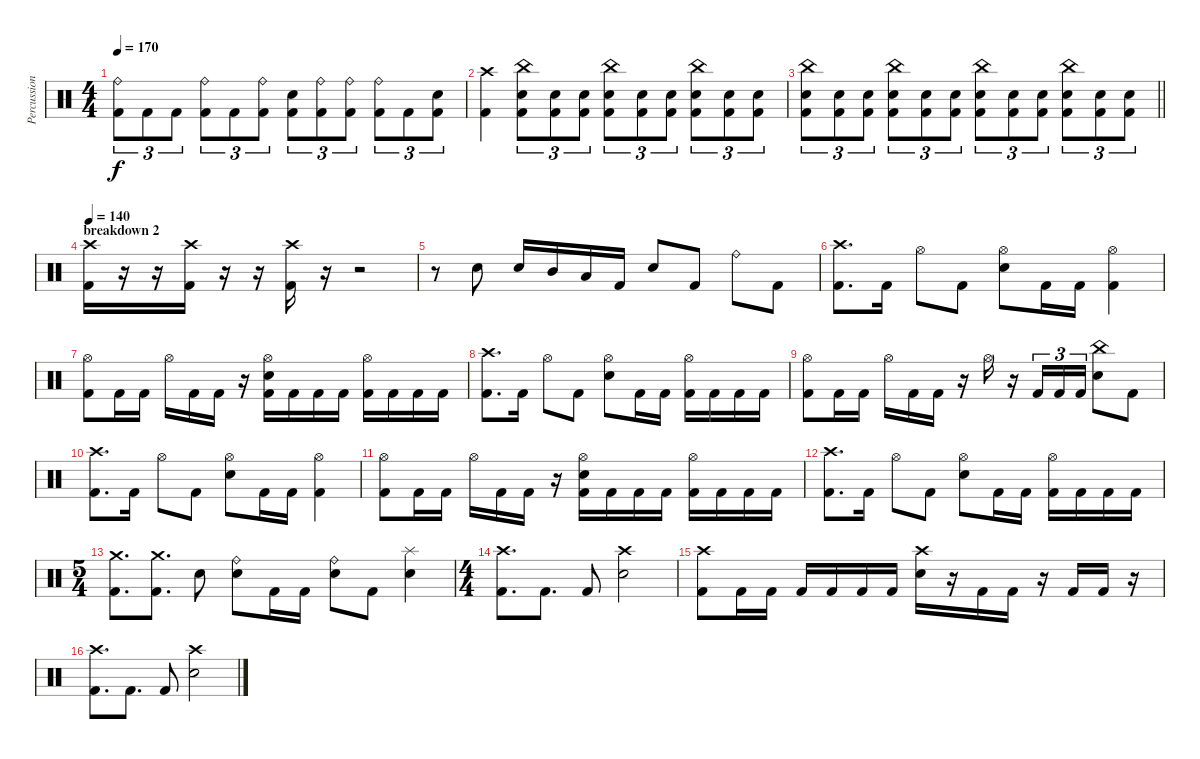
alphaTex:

\track ("Percussion" "Percussion") {instrument percussion}
\staff {score}
\articulation defaults
\ts (4 4)
\tempo 170
\clef neutral
\ks c
("Ride (bell)" "Kick (hit) 2").8{tu (3 2) dy f} "Kick (hit) 2".8{tu (3 2)} "Kick (hit) 2".8{tu (3 2)} ("Ride (bell)" "Kick (hit) 2").8{tu (3 2)} "Kick (hit) 2".8{tu (3 2)} ("Ride (bell)" "Kick (hit) 2").8{tu (3 2)} ("Electric Snare (hit)" "Kick (hit) 2").8{tu (3 2)} ("Ride (bell)" "Kick (hit) 2").8{tu (3 2)} ("Ride (bell)" "Kick (hit) 2").8{tu (3 2)} ("Ride (bell)" "Kick (hit) 2").8{tu (3 2)} "Kick (hit) 2".8{tu (3 2)} ("Electric Snare (hit)" "Kick (hit) 2").8{tu (3 2)} |
("Crash high (hit)" "Kick (hit) 2").4 ("China (hit)" "Electric Snare (hit)" "Kick (hit) 2").8{tu (3 2)} ("Electric Snare (hit)" "Kick (hit) 2").8{tu (3 2)} ("Electric Snare (hit)" "Kick (hit) 2").8{tu (3 2)} ("China (hit)" "Electric Snare (hit)" "Kick (hit) 2").8{tu (3 2)} ("Electric Snare (hit)" "Kick (hit) 2").8{tu (3 2)} ("Electric Snare (hit)" "Kick (hit) 2").8{tu (3 2)} ("China (hit)" "Electric Snare (hit)" "Kick (hit) 2").8{tu (3 2)} ("Electric Snare (hit)" "Kick (hit) 2").8{tu (3 2)} ("Electric Snare (hit)" "Kick (hit) 2").8{tu (3 2)} |
\barLineRight lightlight
("China (hit)" "Electric Snare (hit)" "Kick (hit) 2").8{tu (3 2)} ("Electric Snare (hit)" "Kick (hit) 2").8{tu (3 2)} ("Electric Snare (hit)" "Kick (hit) 2").8{tu (3 2)} ("China (hit)" "Electric Snare (hit)" "Kick (hit) 2").8{tu (3 2)} ("Electric Snare (hit)" "Kick (hit) 2").8{tu (3 2)} ("Electric Snare (hit)" "Kick (hit) 2").8{tu (3 2)} ("China (hit)" "Electric Snare (hit)" "Kick (hit) 2").8{tu (3 2)} ("Electric Snare (hit)" "Kick (hit) 2").8{tu (3 2)} ("Electric Snare (hit)" "Kick (hit) 2").8{tu (3 2)} ("China (hit)" "Electric Snare (hit)" "Kick (hit) 2").8{tu (3 2)} ("Electric Snare (hit)" "Kick (hit) 2").8{tu (3 2)} ("Electric Snare (hit)" "Kick (hit) 2").8{tu (3 2)} |
\section ("" "breakdown 2")
\tempo 150
\tempo 140
("Crash high (hit)" "Kick (hit) 2").16 r.16 r.16 ("Crash high (hit)" "Kick (hit) 2").16 r.16 r.16 ("Crash high (hit)" "Kick (hit) 2").16 r.16 r.2 |
r.8 "Electric Snare (hit)".8 "Electric Snare (hit)".16 "Mid Tom (hit)".16 "Low Tom (hit)".16 "Kick (hit) 2".16 "Electric Snare (hit)".8 "Kick (hit) 2".8 "Ride (bell)".8 "Kick (hit) 2".8 |
("Crash high (hit)" "Kick (hit) 2").8{d} "Kick (hit) 2".16 "Hi-Hat (open)".8 "Kick (hit) 2".8 ("Hi-Hat (open)" "Electric Snare (hit)").8 "Kick (hit) 2".16 "Kick (hit) 2".16 ("Hi-Hat (open)" "Kick (hit) 2").4 |
("Hi-Hat (open)" "Kick (hit) 2").8 "Kick (hit) 2".16 "Kick (hit) 2".16 "Hi-Hat (open)".16 "Kick (hit) 2".16 "Kick (hit) 2".16 r.16 ("Hi-Hat (open)" "Electric Snare (hit)" "Kick (hit) 2").16 "Kick (hit) 2".16 "Kick (hit) 2".16 "Kick (hit) 2".16 ("Hi-Hat (open)" "Kick (hit) 2").16 "Kick (hit) 2".16 "Kick (hit) 2".16 "Kick (hit) 2".16 |
("Crash high (hit)" "Kick (hit) 2").8{d} "Kick (hit) 2".16 "Hi-Hat (open)".8 "Kick (hit) 2".8 ("Hi-Hat (open)" "Electric Snare (hit)").8 "Kick (hit) 2".16 "Kick (hit) 2".16 ("Hi-Hat (open)" "Kick (hit) 2").16 "Kick (hit) 2".16 "Kick (hit) 2".16 "Kick (hit) 2".16 |
("Hi-Hat (open)" "Kick (hit) 2").8 "Kick (hit) 2".16 "Kick (hit) 2".16 "Hi-Hat (open)".16 "Kick (hit) 2".16 "Kick (hit) 2".16 r.16 "Hi-Hat (open)".16 r.16 "Kick (hit) 2".16{tu (3 2)} "Kick (hit) 2".16{tu (3 2)} "Kick (hit) 2".16{tu (3 2)} ("China (hit)" "Electric Snare (hit)").8 "Kick (hit) 2".8 |
("Crash high (hit)" "Kick (hit) 2").8{d} "Kick (hit) 2".16 "Hi-Hat (open)".8 "Kick (hit) 2".8 ("Hi-Hat (open)" "Electric Snare (hit)").8 "Kick (hit) 2".16 "Kick (hit) 2".16 ("Hi-Hat (open)" "Kick (hit) 2").4 |
("Hi-Hat (open)" "Kick (hit) 2").8 "Kick (hit) 2".16 "Kick (hit) 2".16 "Hi-Hat (open)".16 "Kick (hit) 2".16 "Kick (hit) 2".16 r.16 ("Hi-Hat (open)" "Electric Snare (hit)" "Kick (hit) 2").16 "Kick (hit) 2".16 "Kick (hit) 2".16 "Kick (hit) 2".16 ("Hi-Hat (open)" "Kick (hit) 2").16 "Kick (hit) 2".16 "Kick (hit) 2".16 "Kick (hit) 2".16 |
("Crash high (hit)" "Kick (hit) 2").8{d} "Kick (hit) 2".16 "Hi-Hat (open)".8 "Kick (hit) 2".8 ("Hi-Hat (open)" "Electric Snare (hit)").8 "Kick (hit) 2".16 "Kick (hit) 2".16 ("Hi-Hat (open)" "Kick (hit) 2").16 "Kick (hit) 2".16 "Kick (hit) 2".16 "Kick (hit) 2".16 |
\ts (5 4)
("Crash medium (hit)" "Kick (hit) 2").8{d} ("Crash medium (hit)" "Kick (hit) 2").8{d} "Electric Snare (hit)".8 ("Ride (bell)" "Electric Snare (hit)").8 "Kick (hit) 2".16 "Kick (hit) 2".16 ("Ride (bell)" "Electric Snare (hit)").8 "Kick (hit) 2".8 ("Splash (hit)" "Electric Snare (hit)").4 |
\ts (4 4)
("Crash high (hit)" "Kick (hit) 2").8{d} "Kick (hit) 2".8{d} "Kick (hit) 2".8 ("Crash high (hit)" "Electric Snare (hit)").2 |
("Crash high (hit)" "Kick (hit) 2").8 "Kick (hit) 2".16 "Kick (hit) 2".16 "Kick (hit) 2".16 "Kick (hit) 2".16 "Kick (hit) 2".16 "Kick (hit) 2".16 ("Crash high (hit)" "Electric Snare (hit)").16 r.16 "Kick (hit) 2".16 "Kick (hit) 2".16 r.16 "Kick (hit) 2".16 "Kick (hit) 2".16 r.16 |
("Crash high (hit)" "Kick (hit) 2").8{d} "Kick (hit) 2".8{d} "Kick (hit) 2".8 ("Crash high (hit)" "Electric Snare (hit)").2
